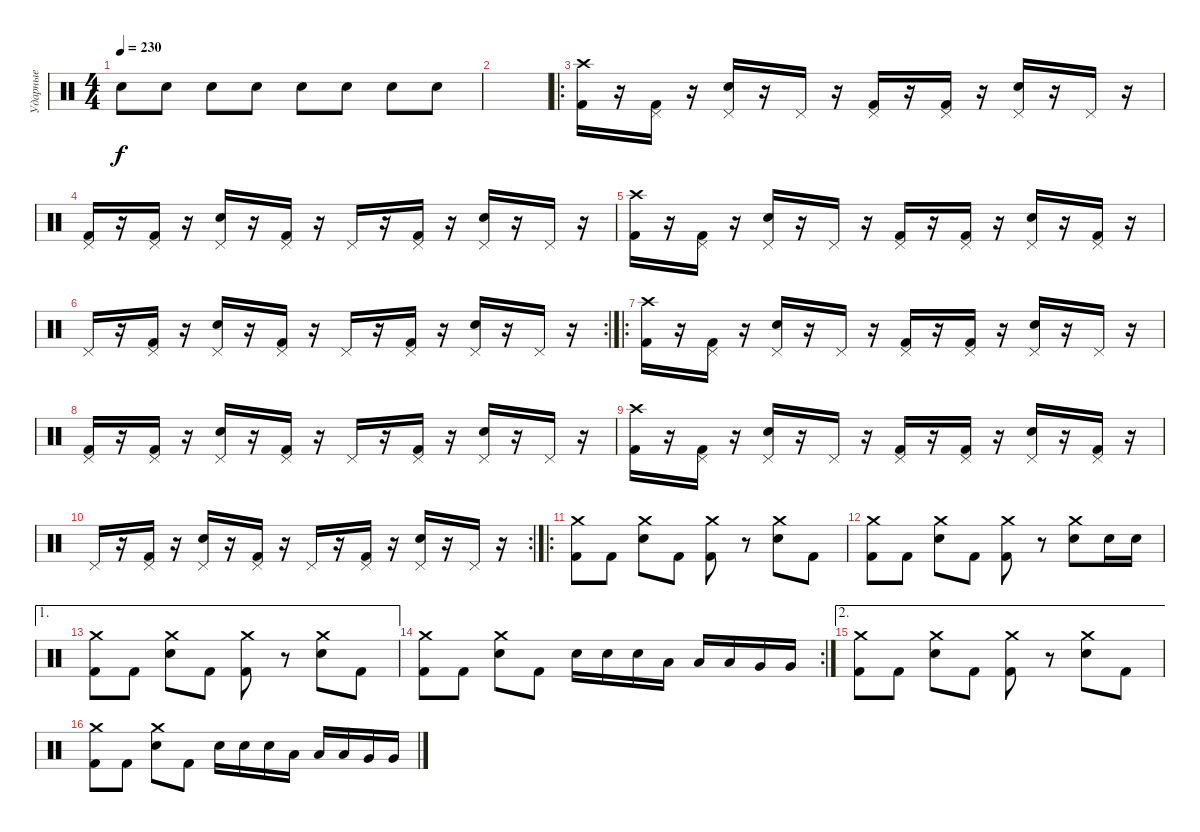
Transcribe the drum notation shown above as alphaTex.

\track ("Ударные" "Ударные") {instrument percussion}
\staff
\articulation defaults
\ts (4 4)
\tempo 230
\clef neutral
\ks c "Electric Snare (hit)".8{dy f volume 13} "Electric Snare (hit)".8 "Electric Snare (hit)".8 "Electric Snare (hit)".8 "Electric Snare (hit)".8 "Electric Snare (hit)".8 "Electric Snare (hit)".8 "Electric Snare (hit)".8
|
|
\ro
("Crash high (hit)" "Kick (hit) 2").16 r.16 ("Pedal Hi-Hat (hit)" "Kick (hit) 2").16 r.16 ("Pedal Hi-Hat (hit)" "Electric Snare (hit)").16 r.16 "Pedal Hi-Hat (hit)".16 r.16 ("Pedal Hi-Hat (hit)" "Kick (hit) 2").16 r.16 ("Pedal Hi-Hat (hit)" "Kick (hit) 2").16 r.16 ("Pedal Hi-Hat (hit)" "Electric Snare (hit)").16 r.16 "Pedal Hi-Hat (hit)".16 r.16 |
("Pedal Hi-Hat (hit)" "Kick (hit) 2").16 r.16 ("Pedal Hi-Hat (hit)" "Kick (hit) 2").16 r.16 ("Pedal Hi-Hat (hit)" "Electric Snare (hit)").16 r.16 ("Pedal Hi-Hat (hit)" "Kick (hit) 2").16 r.16 "Pedal Hi-Hat (hit)".16 r.16 ("Pedal Hi-Hat (hit)" "Kick (hit) 2").16 r.16 ("Pedal Hi-Hat (hit)" "Electric Snare (hit)").16 r.16 "Pedal Hi-Hat (hit)".16 r.16 |
("Crash high (hit)" "Kick (hit) 2").16 r.16 ("Pedal Hi-Hat (hit)" "Kick (hit) 2").16 r.16 ("Pedal Hi-Hat (hit)" "Electric Snare (hit)").16 r.16 "Pedal Hi-Hat (hit)".16 r.16 ("Pedal Hi-Hat (hit)" "Kick (hit) 2").16 r.16 ("Pedal Hi-Hat (hit)" "Kick (hit) 2").16 r.16 ("Pedal Hi-Hat (hit)" "Electric Snare (hit)").16 r.16 ("Pedal Hi-Hat (hit)" "Kick (hit) 2").16 r.16 |
\rc 2 "Pedal Hi-Hat (hit)".16
r.16 ("Pedal Hi-Hat (hit)" "Kick (hit) 2").16 r.16 ("Pedal Hi-Hat (hit)" "Electric Snare (hit)").16 r.16 ("Pedal Hi-Hat (hit)" "Kick (hit) 2").16 r.16 "Pedal Hi-Hat (hit)".16 r.16 ("Pedal Hi-Hat (hit)" "Kick (hit) 2").16 r.16 ("Pedal Hi-Hat (hit)" "Electric Snare (hit)").16 r.16 "Pedal Hi-Hat (hit)".16 r.16 |
\ro
("Crash high (hit)" "Kick (hit) 2").16 r.16 ("Pedal Hi-Hat (hit)" "Kick (hit) 2").16 r.16 ("Pedal Hi-Hat (hit)" "Electric Snare (hit)").16 r.16 "Pedal Hi-Hat (hit)".16 r.16 ("Pedal Hi-Hat (hit)" "Kick (hit) 2").16 r.16 ("Pedal Hi-Hat (hit)" "Kick (hit) 2").16 r.16 ("Pedal Hi-Hat (hit)" "Electric Snare (hit)").16 r.16 "Pedal Hi-Hat (hit)".16 r.16 |
("Pedal Hi-Hat (hit)" "Kick (hit) 2").16 r.16 ("Pedal Hi-Hat (hit)" "Kick (hit) 2").16 r.16 ("Pedal Hi-Hat (hit)" "Electric Snare (hit)").16 r.16 ("Pedal Hi-Hat (hit)" "Kick (hit) 2").16 r.16 "Pedal Hi-Hat (hit)".16 r.16 ("Pedal Hi-Hat (hit)" "Kick (hit) 2").16 r.16 ("Pedal Hi-Hat (hit)" "Electric Snare (hit)").16 r.16 "Pedal Hi-Hat (hit)".16 r.16 |
("Crash high (hit)" "Kick (hit) 2").16 r.16 ("Pedal Hi-Hat (hit)" "Kick (hit) 2").16 r.16 ("Pedal Hi-Hat (hit)" "Electric Snare (hit)").16 r.16 "Pedal Hi-Hat (hit)".16 r.16 ("Pedal Hi-Hat (hit)" "Kick (hit) 2").16 r.16 ("Pedal Hi-Hat (hit)" "Kick (hit) 2").16 r.16 ("Pedal Hi-Hat (hit)" "Electric Snare (hit)").16 r.16 ("Pedal Hi-Hat (hit)" "Kick (hit) 2").16 r.16 |
\rc 2 "Pedal Hi-Hat (hit)".16
r.16 ("Pedal Hi-Hat (hit)" "Kick (hit) 2").16 r.16 ("Pedal Hi-Hat (hit)" "Electric Snare (hit)").16 r.16 ("Pedal Hi-Hat (hit)" "Kick (hit) 2").16 r.16 "Pedal Hi-Hat (hit)".16 r.16 ("Pedal Hi-Hat (hit)" "Kick (hit) 2").16 r.16 ("Pedal Hi-Hat (hit)" "Electric Snare (hit)").16 r.16 "Pedal Hi-Hat (hit)".16 r.16 |
\ro
("Crash medium (hit)" "Kick (hit) 2").8 "Kick (hit) 2".8 ("Crash medium (hit)" "Electric Snare (hit)").8 "Kick (hit) 2".8 ("Crash medium (hit)" "Kick (hit) 2").8 r.8 ("Crash medium (hit)" "Electric Snare (hit)").8 "Kick (hit) 2".8 |
("Crash medium (hit)" "Kick (hit) 2").8 "Kick (hit) 2".8 ("Crash medium (hit)" "Electric Snare (hit)").8 "Kick (hit) 2".8 ("Crash medium (hit)" "Kick (hit) 2").8 r.8 ("Crash medium (hit)" "Electric Snare (hit)").8 "Electric Snare (hit)".16 "Electric Snare (hit)".16 |
\ae 1
("Crash medium (hit)" "Kick (hit) 2").8 "Kick (hit) 2".8 ("Crash medium (hit)" "Electric Snare (hit)").8 "Kick (hit) 2".8 ("Crash medium (hit)" "Kick (hit) 2").8 r.8 ("Crash medium (hit)" "Electric Snare (hit)").8 "Kick (hit) 2".8 |
\rc 2
("Crash medium (hit)" "Kick (hit) 2").8 "Kick (hit) 2".8 ("Crash medium (hit)" "Electric Snare (hit)").8 "Kick (hit) 2".8 "Electric Snare (hit)".16 "Electric Snare (hit)".16 "Electric Snare (hit)".16 "Low Tom (hit)".16 "Low Tom (hit)".16 "Low Tom (hit)".16 "Very Low Tom (hit)".16 "Very Low Tom (hit)".16 |
\ae 2
("Crash medium (hit)" "Kick (hit) 2").8 "Kick (hit) 2".8 ("Crash medium (hit)" "Electric Snare (hit)").8 "Kick (hit) 2".8 ("Crash medium (hit)" "Kick (hit) 2").8 r.8 ("Crash medium (hit)" "Electric Snare (hit)").8 "Kick (hit) 2".8 |
("Crash medium (hit)" "Kick (hit) 2").8 "Kick (hit) 2".8 ("Crash medium (hit)" "Electric Snare (hit)").8 "Kick (hit) 2".8 "Electric Snare (hit)".16 "Electric Snare (hit)".16 "Electric Snare (hit)".16 "Low Tom (hit)".16 "Low Tom (hit)".16 "Low Tom (hit)".16 "Very Low Tom (hit)".16 "Very Low Tom (hit)".16
